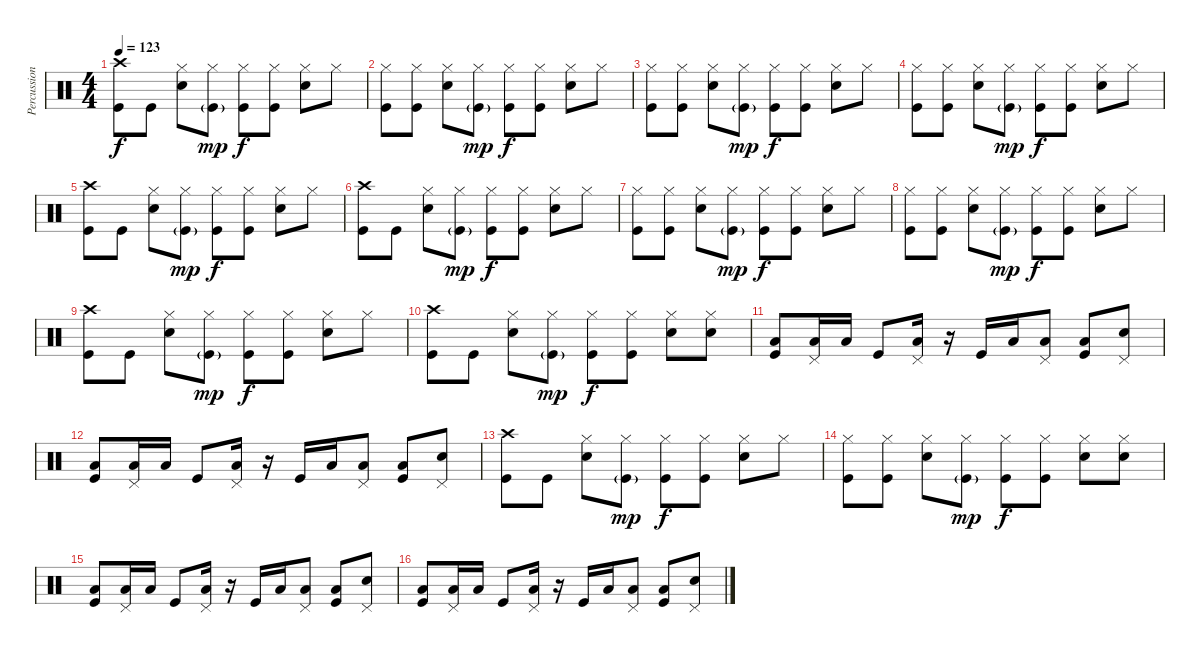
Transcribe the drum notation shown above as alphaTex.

\track ("Percussion" "Percussion") {instrument percussion}
\staff {score}
\articulation defaults
\ts (4 4)
\tempo 123
\clef neutral
\ks c
("Crash high (hit)" "Kick (hit)").8{dy f} "Kick (hit)".8 ("Hi-Hat (closed)" "Snare (hit) 2").8 ("Hi-Hat (closed)" "Kick (hit)"{g}).8{dy mp} ("Hi-Hat (closed)" "Kick (hit)").8{dy f} ("Hi-Hat (closed)" "Kick (hit)").8 ("Hi-Hat (closed)" "Snare (hit) 2").8 "Hi-Hat (closed)".8 |
("Hi-Hat (closed)" "Kick (hit)").8 ("Hi-Hat (closed)" "Kick (hit)").8 ("Hi-Hat (closed)" "Snare (hit) 2").8 ("Hi-Hat (closed)" "Kick (hit)"{g}).8{dy mp} ("Hi-Hat (closed)" "Kick (hit)").8{dy f} ("Hi-Hat (closed)" "Kick (hit)").8 ("Hi-Hat (closed)" "Snare (hit) 2").8 "Hi-Hat (closed)".8 |
("Hi-Hat (closed)" "Kick (hit)").8 ("Hi-Hat (closed)" "Kick (hit)").8 ("Hi-Hat (closed)" "Snare (hit) 2").8 ("Hi-Hat (closed)" "Kick (hit)"{g}).8{dy mp} ("Hi-Hat (closed)" "Kick (hit)").8{dy f} ("Hi-Hat (closed)" "Kick (hit)").8 ("Hi-Hat (closed)" "Snare (hit) 2").8 "Hi-Hat (closed)".8 |
("Hi-Hat (closed)" "Kick (hit)").8 ("Hi-Hat (closed)" "Kick (hit)").8 ("Hi-Hat (closed)" "Snare (hit) 2").8 ("Hi-Hat (closed)" "Kick (hit)"{g}).8{dy mp} ("Hi-Hat (closed)" "Kick (hit)").8{dy f} ("Hi-Hat (closed)" "Kick (hit)").8 ("Hi-Hat (closed)" "Snare (hit) 2").8 "Hi-Hat (closed)".8 |
("Crash high (hit)" "Kick (hit)").8 "Kick (hit)".8 ("Hi-Hat (closed)" "Snare (hit) 2").8 ("Hi-Hat (closed)" "Kick (hit)"{g}).8{dy mp} ("Hi-Hat (closed)" "Kick (hit)").8{dy f} ("Hi-Hat (closed)" "Kick (hit)").8 ("Hi-Hat (closed)" "Snare (hit) 2").8 "Hi-Hat (closed)".8 |
("Crash high (hit)" "Kick (hit)").8 "Kick (hit)".8 ("Hi-Hat (closed)" "Snare (hit) 2").8 ("Hi-Hat (closed)" "Kick (hit)"{g}).8{dy mp} ("Hi-Hat (closed)" "Kick (hit)").8{dy f} ("Hi-Hat (closed)" "Kick (hit)").8 ("Hi-Hat (closed)" "Snare (hit) 2").8 "Hi-Hat (closed)".8 |
("Hi-Hat (closed)" "Kick (hit)").8 ("Hi-Hat (closed)" "Kick (hit)").8 ("Hi-Hat (closed)" "Snare (hit) 2").8 ("Hi-Hat (closed)" "Kick (hit)"{g}).8{dy mp} ("Hi-Hat (closed)" "Kick (hit)").8{dy f} ("Hi-Hat (closed)" "Kick (hit)").8 ("Hi-Hat (closed)" "Snare (hit) 2").8 "Hi-Hat (closed)".8 |
("Hi-Hat (closed)" "Kick (hit)").8 ("Hi-Hat (closed)" "Kick (hit)").8 ("Hi-Hat (closed)" "Snare (hit) 2").8 ("Hi-Hat (closed)" "Kick (hit)"{g}).8{dy mp} ("Hi-Hat (closed)" "Kick (hit)").8{dy f} ("Hi-Hat (closed)" "Kick (hit)").8 ("Hi-Hat (closed)" "Snare (hit) 2").8 "Hi-Hat (closed)".8 |
("Crash high (hit)" "Kick (hit)").8 "Kick (hit)".8 ("Hi-Hat (closed)" "Snare (hit) 2").8 ("Hi-Hat (closed)" "Kick (hit)"{g}).8{dy mp} ("Hi-Hat (closed)" "Kick (hit)").8{dy f} ("Hi-Hat (closed)" "Kick (hit)").8 ("Hi-Hat (closed)" "Snare (hit) 2").8 "Hi-Hat (closed)".8 |
("Crash high (hit)" "Kick (hit)").8 "Kick (hit)".8 ("Hi-Hat (closed)" "Snare (hit) 2").8 ("Hi-Hat (closed)" "Kick (hit)"{g}).8{dy mp} ("Hi-Hat (closed)" "Kick (hit)").8{dy f} ("Hi-Hat (closed)" "Kick (hit)").8 ("Hi-Hat (closed)" "Snare (hit) 2").8 ("Hi-Hat (closed)" "Snare (hit) 2").8 |
("Low Tom (hit)" "Kick (hit)").8 ("Low Tom (hit)" "Pedal Hi-Hat (hit)").16 "Low Tom (hit)".16 "Kick (hit)".8 ("Low Floor Tom (hit)" "Pedal Hi-Hat (hit)").16 r.16 "Kick (hit)".16 "Low Tom (hit)".16 ("Low Tom (hit)" "Pedal Hi-Hat (hit)").8 ("Low Tom (hit)" "Kick (hit)").8 ("Snare (hit) 2" "Pedal Hi-Hat (hit)").8 |
("Low Tom (hit)" "Kick (hit)").8 ("Low Tom (hit)" "Pedal Hi-Hat (hit)").16 "Low Tom (hit)".16 "Kick (hit)".8 ("Low Floor Tom (hit)" "Pedal Hi-Hat (hit)").16 r.16 "Kick (hit)".16 "Low Tom (hit)".16 ("Low Tom (hit)" "Pedal Hi-Hat (hit)").8 ("Low Tom (hit)" "Kick (hit)").8 ("Snare (hit) 2" "Pedal Hi-Hat (hit)").8 |
("Crash high (hit)" "Kick (hit)").8 "Kick (hit)".8 ("Hi-Hat (closed)" "Snare (hit) 2").8 ("Hi-Hat (closed)" "Kick (hit)"{g}).8{dy mp} ("Hi-Hat (closed)" "Kick (hit)").8{dy f} ("Hi-Hat (closed)" "Kick (hit)").8 ("Hi-Hat (closed)" "Snare (hit) 2").8 "Hi-Hat (closed)".8 |
("Hi-Hat (closed)" "Kick (hit)").8 ("Hi-Hat (closed)" "Kick (hit)").8 ("Hi-Hat (closed)" "Snare (hit) 2").8 ("Hi-Hat (closed)" "Kick (hit)"{g}).8{dy mp} ("Hi-Hat (closed)" "Kick (hit)").8{dy f} ("Hi-Hat (closed)" "Kick (hit)").8 ("Hi-Hat (closed)" "Snare (hit) 2").8 ("Hi-Hat (closed)" "Snare (hit) 2").8 |
("Low Tom (hit)" "Kick (hit)").8 ("Low Tom (hit)" "Pedal Hi-Hat (hit)").16 "Low Tom (hit)".16 "Kick (hit)".8 ("Low Floor Tom (hit)" "Pedal Hi-Hat (hit)").16 r.16 "Kick (hit)".16 "Low Tom (hit)".16 ("Low Tom (hit)" "Pedal Hi-Hat (hit)").8 ("Low Tom (hit)" "Kick (hit)").8 ("Snare (hit) 2" "Pedal Hi-Hat (hit)").8 |
("Low Tom (hit)" "Kick (hit)").8 ("Low Tom (hit)" "Pedal Hi-Hat (hit)").16 "Low Tom (hit)".16 "Kick (hit)".8 ("Low Floor Tom (hit)" "Pedal Hi-Hat (hit)").16 r.16 "Kick (hit)".16 "Low Tom (hit)".16 ("Low Tom (hit)" "Pedal Hi-Hat (hit)").8 ("Low Tom (hit)" "Kick (hit)").8 ("Snare (hit) 2" "Pedal Hi-Hat (hit)").8
